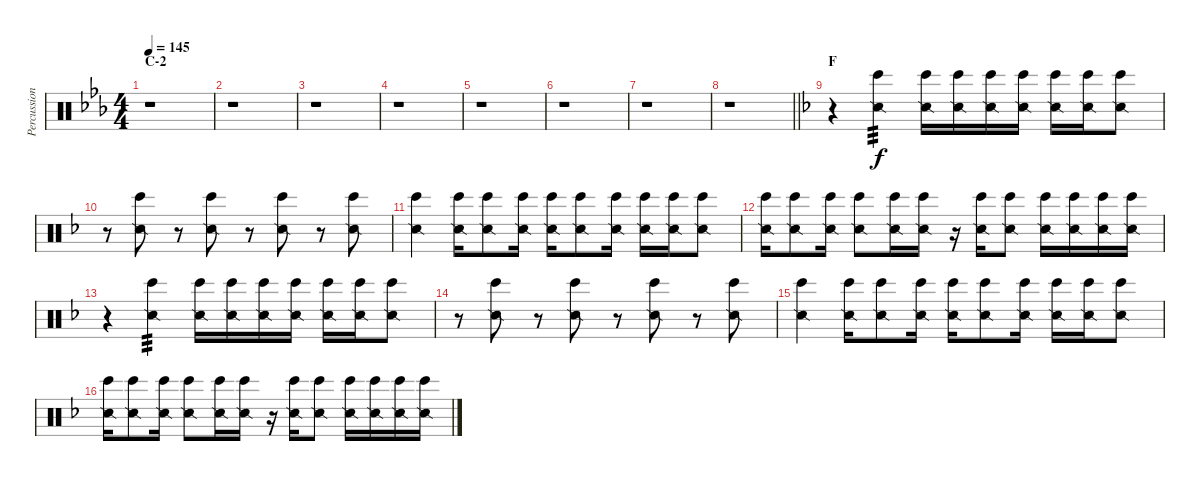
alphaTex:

\track ("Percussion" "Percussion") {instrument percussion}
\staff {score}
\articulation defaults
\ts (4 4)
\section ("" "C-2")
\tempo 145
\clef neutral
\ks eb
r.1{dy f} |
r.1 |
r.1 |
r.1 |
r.1 |
r.1 |
r.1 |
\barLineRight lightlight
r.1 |
\section ("" "F")
\ks f
r.4 ("Snare (side stick) 2" "Bongo High (hit)").4{tp 3} ("Snare (side stick) 2" "Bongo High (hit)").16 ("Snare (side stick) 2" "Bongo High (hit)").16 ("Snare (side stick) 2" "Bongo High (hit)").16 ("Snare (side stick) 2" "Bongo High (hit)").16 ("Snare (side stick) 2" "Bongo High (hit)").16 ("Snare (side stick) 2" "Bongo High (hit)").16 ("Snare (side stick) 2" "Bongo High (hit)").8 |
r.8 ("Snare (side stick) 2" "Bongo High (hit)").8 r.8 ("Snare (side stick) 2" "Bongo High (hit)").8 r.8 ("Snare (side stick) 2" "Bongo High (hit)").8 r.8 ("Snare (side stick) 2" "Bongo High (hit)").8 |
("Snare (side stick) 2" "Bongo High (hit)").4 ("Snare (side stick) 2" "Bongo High (hit)").16 ("Snare (side stick) 2" "Bongo High (hit)").8 ("Snare (side stick) 2" "Bongo High (hit)").16 ("Snare (side stick) 2" "Bongo High (hit)").16 ("Snare (side stick) 2" "Bongo High (hit)").8 ("Snare (side stick) 2" "Bongo High (hit)").16 ("Snare (side stick) 2" "Bongo High (hit)").16 ("Snare (side stick) 2" "Bongo High (hit)").16 ("Snare (side stick) 2" "Bongo High (hit)").8 |
("Snare (side stick) 2" "Bongo High (hit)").16 ("Snare (side stick) 2" "Bongo High (hit)").8 ("Snare (side stick) 2" "Bongo High (hit)").16 ("Snare (side stick) 2" "Bongo High (hit)").8 ("Snare (side stick) 2" "Bongo High (hit)").16 ("Snare (side stick) 2" "Bongo High (hit)").16 r.16 ("Snare (side stick) 2" "Bongo High (hit)").16 ("Snare (side stick) 2" "Bongo High (hit)").8 ("Snare (side stick) 2" "Bongo High (hit)").16 ("Snare (side stick) 2" "Bongo High (hit)").16 ("Snare (side stick) 2" "Bongo High (hit)").16 ("Snare (side stick) 2" "Bongo High (hit)").16 |
r.4 ("Snare (side stick) 2" "Bongo High (hit)").4{tp 3} ("Snare (side stick) 2" "Bongo High (hit)").16 ("Snare (side stick) 2" "Bongo High (hit)").16 ("Snare (side stick) 2" "Bongo High (hit)").16 ("Snare (side stick) 2" "Bongo High (hit)").16 ("Snare (side stick) 2" "Bongo High (hit)").16 ("Snare (side stick) 2" "Bongo High (hit)").16 ("Snare (side stick) 2" "Bongo High (hit)").8 |
r.8 ("Snare (side stick) 2" "Bongo High (hit)").8 r.8 ("Snare (side stick) 2" "Bongo High (hit)").8 r.8 ("Snare (side stick) 2" "Bongo High (hit)").8 r.8 ("Snare (side stick) 2" "Bongo High (hit)").8 |
("Snare (side stick) 2" "Bongo High (hit)").4 ("Snare (side stick) 2" "Bongo High (hit)").16 ("Snare (side stick) 2" "Bongo High (hit)").8 ("Snare (side stick) 2" "Bongo High (hit)").16 ("Snare (side stick) 2" "Bongo High (hit)").16 ("Snare (side stick) 2" "Bongo High (hit)").8 ("Snare (side stick) 2" "Bongo High (hit)").16 ("Snare (side stick) 2" "Bongo High (hit)").16 ("Snare (side stick) 2" "Bongo High (hit)").16 ("Snare (side stick) 2" "Bongo High (hit)").8 |
("Snare (side stick) 2" "Bongo High (hit)").16 ("Snare (side stick) 2" "Bongo High (hit)").8 ("Snare (side stick) 2" "Bongo High (hit)").16 ("Snare (side stick) 2" "Bongo High (hit)").8 ("Snare (side stick) 2" "Bongo High (hit)").16 ("Snare (side stick) 2" "Bongo High (hit)").16 r.16 ("Snare (side stick) 2" "Bongo High (hit)").16 ("Snare (side stick) 2" "Bongo High (hit)").8 ("Snare (side stick) 2" "Bongo High (hit)").16 ("Snare (side stick) 2" "Bongo High (hit)").16 ("Snare (side stick) 2" "Bongo High (hit)").16 ("Snare (side stick) 2" "Bongo High (hit)").16
